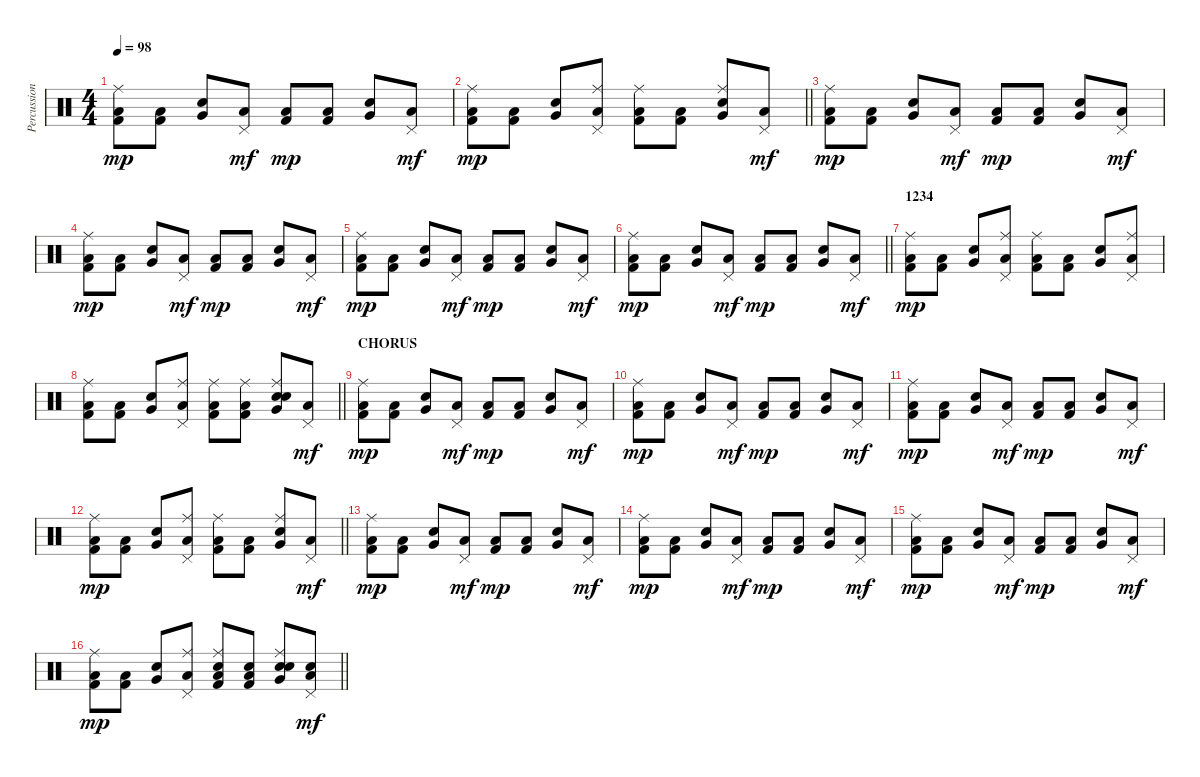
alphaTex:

\track ("Percussion" "Percussion") {instrument percussion}
\staff {score}
\articulation defaults
\ts (4 4)
\tempo 98
\clef neutral
\ks c
("Kick (hit) 2" "Low Floor Tom (hit)" "Ride (middle)").8{dy mp} ("Kick (hit) 2" "Low Floor Tom (hit)").8 ("Snare (hit) 2" "Very Low Tom (hit)").8 ("Low Floor Tom (hit)" "Pedal Hi-Hat (hit)").8{dy mf} ("Kick (hit) 2" "Low Floor Tom (hit)").8{dy mp} ("Kick (hit) 2" "Low Floor Tom (hit)").8 ("Snare (hit) 2" "Very Low Tom (hit)").8 ("Low Floor Tom (hit)" "Pedal Hi-Hat (hit)").8{dy mf} |
\barLineRight lightlight
("Kick (hit) 2" "Low Floor Tom (hit)" "Ride (middle)").8{dy mp} ("Kick (hit) 2" "Low Floor Tom (hit)").8 ("Snare (hit) 2" "Very Low Tom (hit)").8 ("Low Floor Tom (hit)" "Pedal Hi-Hat (hit)" "Ride (middle)").8 ("Kick (hit) 2" "Low Floor Tom (hit)" "Ride (middle)").8 ("Kick (hit) 2" "Low Floor Tom (hit)").8 ("Snare (hit) 2" "Very Low Tom (hit)" "Ride (middle)").8 ("Low Floor Tom (hit)" "Pedal Hi-Hat (hit)").8{dy mf} |
("Kick (hit) 2" "Low Floor Tom (hit)" "Ride (middle)").8{dy mp} ("Kick (hit) 2" "Low Floor Tom (hit)").8 ("Snare (hit) 2" "Very Low Tom (hit)").8 ("Low Floor Tom (hit)" "Pedal Hi-Hat (hit)").8{dy mf} ("Kick (hit) 2" "Low Floor Tom (hit)").8{dy mp} ("Kick (hit) 2" "Low Floor Tom (hit)").8 ("Snare (hit) 2" "Very Low Tom (hit)").8 ("Low Floor Tom (hit)" "Pedal Hi-Hat (hit)").8{dy mf} |
("Kick (hit) 2" "Low Floor Tom (hit)" "Ride (middle)").8{dy mp} ("Kick (hit) 2" "Low Floor Tom (hit)").8 ("Snare (hit) 2" "Very Low Tom (hit)").8 ("Low Floor Tom (hit)" "Pedal Hi-Hat (hit)").8{dy mf} ("Kick (hit) 2" "Low Floor Tom (hit)").8{dy mp} ("Kick (hit) 2" "Low Floor Tom (hit)").8 ("Snare (hit) 2" "Very Low Tom (hit)").8 ("Low Floor Tom (hit)" "Pedal Hi-Hat (hit)").8{dy mf} |
("Kick (hit) 2" "Low Floor Tom (hit)" "Ride (middle)").8{dy mp} ("Kick (hit) 2" "Low Floor Tom (hit)").8 ("Snare (hit) 2" "Very Low Tom (hit)").8 ("Low Floor Tom (hit)" "Pedal Hi-Hat (hit)").8{dy mf} ("Kick (hit) 2" "Low Floor Tom (hit)").8{dy mp} ("Kick (hit) 2" "Low Floor Tom (hit)").8 ("Snare (hit) 2" "Very Low Tom (hit)").8 ("Low Floor Tom (hit)" "Pedal Hi-Hat (hit)").8{dy mf} |
\barLineRight lightlight
("Kick (hit) 2" "Low Floor Tom (hit)" "Ride (middle)").8{dy mp} ("Kick (hit) 2" "Low Floor Tom (hit)").8 ("Snare (hit) 2" "Very Low Tom (hit)").8 ("Low Floor Tom (hit)" "Pedal Hi-Hat (hit)").8{dy mf} ("Kick (hit) 2" "Low Floor Tom (hit)").8{dy mp} ("Kick (hit) 2" "Low Floor Tom (hit)").8 ("Snare (hit) 2" "Very Low Tom (hit)").8 ("Low Floor Tom (hit)" "Pedal Hi-Hat (hit)").8{dy mf} |
\section ("" "1234")
("Kick (hit) 2" "Low Floor Tom (hit)" "Ride (middle)").8{dy mp} ("Kick (hit) 2" "Low Floor Tom (hit)").8 ("Snare (hit) 2" "Very Low Tom (hit)").8 ("Low Floor Tom (hit)" "Pedal Hi-Hat (hit)" "Ride (middle)").8 ("Kick (hit) 2" "Low Floor Tom (hit)" "Ride (middle)").8 ("Kick (hit) 2" "Low Floor Tom (hit)").8 ("Snare (hit) 2" "Very Low Tom (hit)").8 ("Low Floor Tom (hit)" "Pedal Hi-Hat (hit)" "Ride (middle)").8 |
\barLineRight lightlight
("Kick (hit) 2" "Low Floor Tom (hit)" "Ride (middle)").8 ("Kick (hit) 2" "Low Floor Tom (hit)").8 ("Snare (hit) 2" "Very Low Tom (hit)").8 ("Low Floor Tom (hit)" "Pedal Hi-Hat (hit)" "Ride (middle)").8 ("Kick (hit) 2" "Low Floor Tom (hit)" "Ride (middle)").8 ("Kick (hit) 2" "Low Floor Tom (hit)" "Ride (middle)").8 ("Snare (hit) 2" "Electric Snare (hit)" "Very Low Tom (hit)" "Ride (middle)").8 ("Low Floor Tom (hit)" "Pedal Hi-Hat (hit)").8{dy mf} |
\section ("" "CHORUS")
("Kick (hit) 2" "Low Floor Tom (hit)" "Ride (middle)").8{dy mp} ("Kick (hit) 2" "Low Floor Tom (hit)").8 ("Snare (hit) 2" "Very Low Tom (hit)").8 ("Low Floor Tom (hit)" "Pedal Hi-Hat (hit)").8{dy mf} ("Kick (hit) 2" "Low Floor Tom (hit)").8{dy mp} ("Kick (hit) 2" "Low Floor Tom (hit)").8 ("Snare (hit) 2" "Very Low Tom (hit)").8 ("Low Floor Tom (hit)" "Pedal Hi-Hat (hit)").8{dy mf} |
("Kick (hit) 2" "Low Floor Tom (hit)" "Ride (middle)").8{dy mp} ("Kick (hit) 2" "Low Floor Tom (hit)").8 ("Snare (hit) 2" "Very Low Tom (hit)").8 ("Low Floor Tom (hit)" "Pedal Hi-Hat (hit)").8{dy mf} ("Kick (hit) 2" "Low Floor Tom (hit)").8{dy mp} ("Kick (hit) 2" "Low Floor Tom (hit)").8 ("Snare (hit) 2" "Very Low Tom (hit)").8 ("Low Floor Tom (hit)" "Pedal Hi-Hat (hit)").8{dy mf} |
("Kick (hit) 2" "Low Floor Tom (hit)" "Ride (middle)").8{dy mp} ("Kick (hit) 2" "Low Floor Tom (hit)").8 ("Snare (hit) 2" "Very Low Tom (hit)").8 ("Low Floor Tom (hit)" "Pedal Hi-Hat (hit)").8{dy mf} ("Kick (hit) 2" "Low Floor Tom (hit)").8{dy mp} ("Kick (hit) 2" "Low Floor Tom (hit)").8 ("Snare (hit) 2" "Very Low Tom (hit)").8 ("Low Floor Tom (hit)" "Pedal Hi-Hat (hit)").8{dy mf} |
\barLineRight lightlight
("Kick (hit) 2" "Low Floor Tom (hit)" "Ride (middle)").8{dy mp} ("Kick (hit) 2" "Low Floor Tom (hit)").8 ("Snare (hit) 2" "Very Low Tom (hit)").8 ("Low Floor Tom (hit)" "Pedal Hi-Hat (hit)" "Ride (middle)").8 ("Kick (hit) 2" "Low Floor Tom (hit)" "Ride (middle)").8 ("Kick (hit) 2" "Low Floor Tom (hit)").8 ("Snare (hit) 2" "Very Low Tom (hit)" "Ride (middle)").8 ("Low Floor Tom (hit)" "Pedal Hi-Hat (hit)").8{dy mf} |
("Kick (hit) 2" "Low Floor Tom (hit)" "Ride (middle)").8{dy mp} ("Kick (hit) 2" "Low Floor Tom (hit)").8 ("Snare (hit) 2" "Very Low Tom (hit)").8 ("Low Floor Tom (hit)" "Pedal Hi-Hat (hit)").8{dy mf} ("Kick (hit) 2" "Low Floor Tom (hit)").8{dy mp} ("Kick (hit) 2" "Low Floor Tom (hit)").8 ("Snare (hit) 2" "Very Low Tom (hit)").8 ("Low Floor Tom (hit)" "Pedal Hi-Hat (hit)").8{dy mf} |
("Kick (hit) 2" "Low Floor Tom (hit)" "Ride (middle)").8{dy mp} ("Kick (hit) 2" "Low Floor Tom (hit)").8 ("Snare (hit) 2" "Very Low Tom (hit)").8 ("Low Floor Tom (hit)" "Pedal Hi-Hat (hit)").8{dy mf} ("Kick (hit) 2" "Low Floor Tom (hit)").8{dy mp} ("Kick (hit) 2" "Low Floor Tom (hit)").8 ("Snare (hit) 2" "Very Low Tom (hit)").8 ("Low Floor Tom (hit)" "Pedal Hi-Hat (hit)").8{dy mf} |
("Kick (hit) 2" "Low Floor Tom (hit)" "Ride (middle)").8{dy mp} ("Kick (hit) 2" "Low Floor Tom (hit)").8 ("Snare (hit) 2" "Very Low Tom (hit)").8 ("Low Floor Tom (hit)" "Pedal Hi-Hat (hit)").8{dy mf} ("Kick (hit) 2" "Low Floor Tom (hit)").8{dy mp} ("Kick (hit) 2" "Low Floor Tom (hit)").8 ("Snare (hit) 2" "Very Low Tom (hit)").8 ("Low Floor Tom (hit)" "Pedal Hi-Hat (hit)").8{dy mf} |
\barLineRight lightlight
("Kick (hit) 2" "Low Floor Tom (hit)" "Ride (middle)").8{dy mp} ("Kick (hit) 2" "Low Floor Tom (hit)").8 ("Snare (hit) 2" "Very Low Tom (hit)").8 ("Low Floor Tom (hit)" "Pedal Hi-Hat (hit)" "Ride (middle)").8 ("Kick (hit) 2" "Snare (hit) 2" "Low Floor Tom (hit)" "Ride (middle)").8 ("Kick (hit) 2" "Snare (hit) 2" "Low Floor Tom (hit)").8 ("Snare (hit) 2" "Snare (hit) 2" "Very Low Tom (hit)" "Ride (middle)").8 ("Snare (hit) 2" "Low Floor Tom (hit)" "Pedal Hi-Hat (hit)").8{dy mf}
